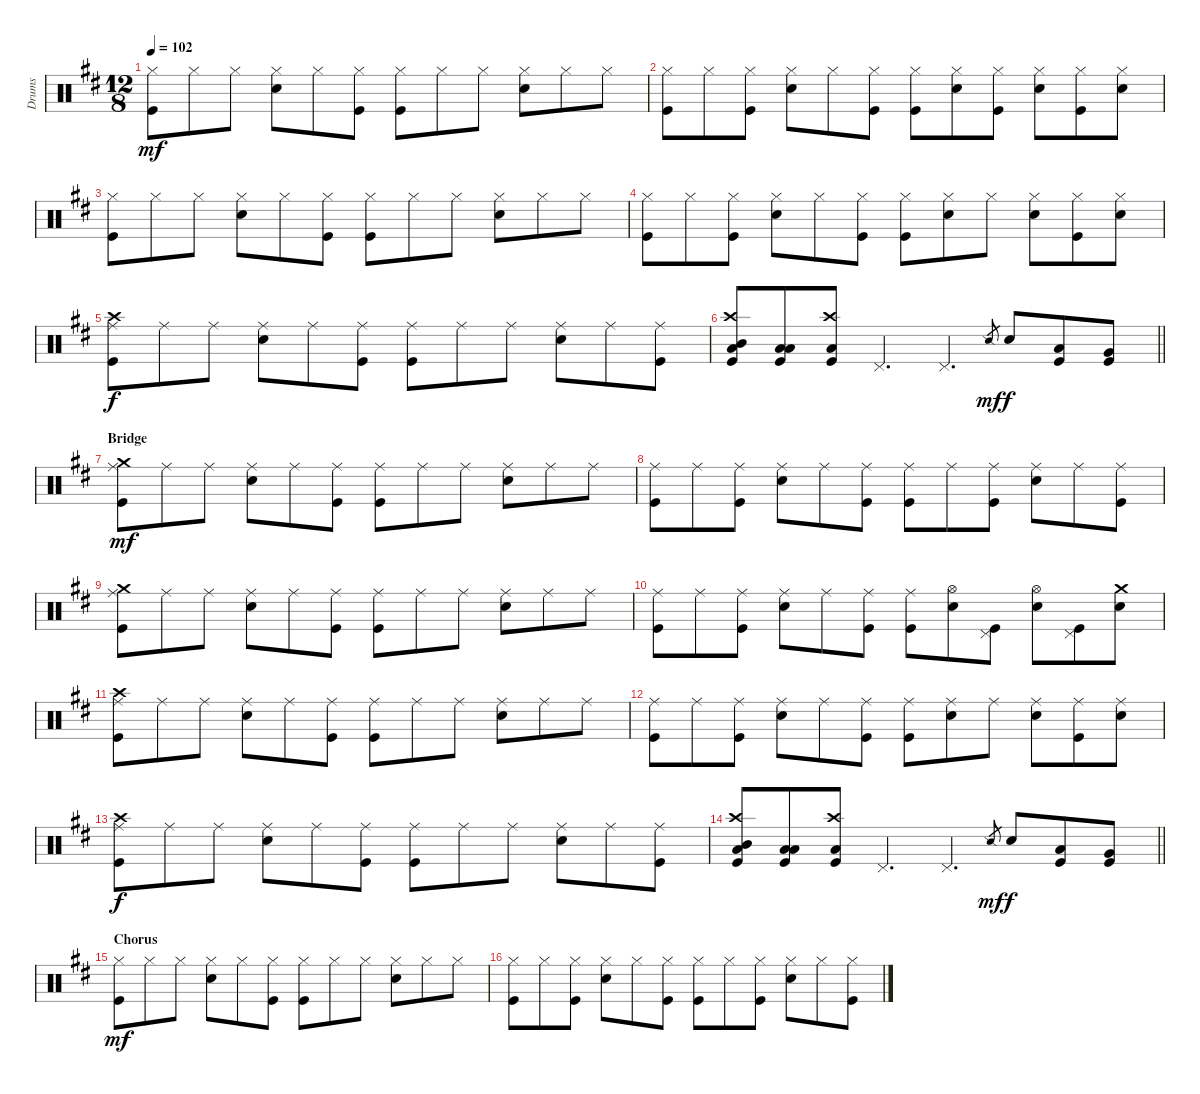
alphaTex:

\track ("Drums" "Drums") {instrument percussion}
\staff {score}
\articulation defaults
\ts (12 8)
\tempo 102
\clef neutral
\ks d
("Hi-Hat (closed)" "Kick (hit)").8{dy mf} "Hi-Hat (closed)".8 "Hi-Hat (closed)".8 ("Hi-Hat (closed)" "Snare (hit) 2").8 "Hi-Hat (closed)".8 ("Hi-Hat (closed)" "Kick (hit)").8 ("Hi-Hat (closed)" "Kick (hit)").8 "Hi-Hat (closed)".8 "Hi-Hat (closed)".8 ("Hi-Hat (closed)" "Snare (hit) 2").8 "Hi-Hat (closed)".8 "Hi-Hat (closed)".8 |
("Hi-Hat (closed)" "Kick (hit)").8 "Hi-Hat (closed)".8 ("Hi-Hat (closed)" "Kick (hit)").8 ("Hi-Hat (closed)" "Snare (hit) 2").8 "Hi-Hat (closed)".8 ("Hi-Hat (closed)" "Kick (hit)").8 ("Hi-Hat (closed)" "Kick (hit)").8 ("Hi-Hat (closed)" "Snare (hit) 2").8 ("Hi-Hat (closed)" "Kick (hit)").8 ("Hi-Hat (closed)" "Snare (hit) 2").8 ("Hi-Hat (closed)" "Kick (hit)").8 ("Hi-Hat (closed)" "Snare (hit) 2").8 |
("Hi-Hat (closed)" "Kick (hit)").8 "Hi-Hat (closed)".8 "Hi-Hat (closed)".8 ("Hi-Hat (closed)" "Snare (hit) 2").8 "Hi-Hat (closed)".8 ("Hi-Hat (closed)" "Kick (hit)").8 ("Hi-Hat (closed)" "Kick (hit)").8 "Hi-Hat (closed)".8 "Hi-Hat (closed)".8 ("Hi-Hat (closed)" "Snare (hit) 2").8 "Hi-Hat (closed)".8 "Hi-Hat (closed)".8 |
("Hi-Hat (closed)" "Kick (hit)").8 "Hi-Hat (closed)".8 ("Hi-Hat (closed)" "Kick (hit)").8 ("Hi-Hat (closed)" "Snare (hit) 2").8 "Hi-Hat (closed)".8 ("Hi-Hat (closed)" "Kick (hit)").8 ("Hi-Hat (closed)" "Kick (hit)").8 ("Hi-Hat (closed)" "Snare (hit) 2").8 "Hi-Hat (closed)".8 ("Hi-Hat (closed)" "Snare (hit) 2").8 ("Hi-Hat (closed)" "Kick (hit)").8 ("Hi-Hat (closed)" "Snare (hit) 2").8 |
("Ride (middle)" "Crash high (hit)" "Kick (hit)").8{dy f} "Ride (middle)".8 "Ride (middle)".8 ("Ride (middle)" "Snare (hit) 2").8 "Ride (middle)".8 ("Ride (middle)" "Kick (hit)").8 ("Ride (middle)" "Kick (hit)").8 "Ride (middle)".8 "Ride (middle)".8 ("Ride (middle)" "Snare (hit) 2").8 "Ride (middle)".8 ("Ride (middle)" "Kick (hit)").8 |
\barLineRight lightlight
("Crash high (hit)" "Mid Tom (hit)" "Low Floor Tom (hit)" "Kick (hit)").8 ("Low Tom (hit)" "Low Floor Tom (hit)" "Kick (hit)").8 ("Crash high (hit)" "Low Floor Tom (hit)" "Kick (hit)").8 "Pedal Hi-Hat (hit)".4{d} "Pedal Hi-Hat (hit)".4{d} "Snare (side stick) 2".8{gr dy mf} "Snare (hit) 2".8{dy f} ("Low Tom (hit)" "Kick (hit)").8 ("Very Low Tom (hit)" "Kick (hit)").8 |
\section ("" "Bridge")
("Ride (middle)" "Crash medium (hit)" "Kick (hit)").8{dy mf} "Ride (middle)".8 "Ride (middle)".8 ("Ride (middle)" "Snare (hit) 2").8 "Ride (middle)".8 ("Ride (middle)" "Kick (hit)").8 ("Ride (middle)" "Kick (hit)").8 "Ride (middle)".8 "Ride (middle)".8 ("Ride (middle)" "Snare (hit) 2").8 "Ride (middle)".8 "Ride (middle)".8 |
("Ride (middle)" "Kick (hit)").8 "Ride (middle)".8 ("Ride (middle)" "Kick (hit)").8 ("Ride (middle)" "Snare (hit) 2").8 "Ride (middle)".8 ("Ride (middle)" "Kick (hit)").8 ("Ride (middle)" "Kick (hit)").8 "Ride (middle)".8 ("Ride (middle)" "Kick (hit)").8 ("Ride (middle)" "Snare (hit) 2").8 "Ride (middle)".8 ("Ride (middle)" "Kick (hit)").8 |
("Ride (middle)" "Crash medium (hit)" "Kick (hit)").8 "Ride (middle)".8 "Ride (middle)".8 ("Ride (middle)" "Snare (hit) 2").8 "Ride (middle)".8 ("Ride (middle)" "Kick (hit)").8 ("Ride (middle)" "Kick (hit)").8 "Ride (middle)".8 "Ride (middle)".8 ("Ride (middle)" "Snare (hit) 2").8 "Ride (middle)".8 "Ride (middle)".8 |
("Ride (middle)" "Kick (hit)").8 "Ride (middle)".8 ("Ride (middle)" "Kick (hit)").8 ("Ride (middle)" "Snare (hit) 2").8 "Ride (middle)".8 ("Ride (middle)" "Kick (hit)").8 ("Ride (middle)" "Kick (hit)").8 ("Hi-Hat (open)" "Snare (hit) 2").8 ("Pedal Hi-Hat (hit)" "Kick (hit)").8 ("Hi-Hat (open)" "Snare (hit) 2").8 ("Pedal Hi-Hat (hit)" "Kick (hit)").8 ("Crash medium (hit)" "Snare (hit) 2").8 |
("Ride (middle)" "Crash high (hit)" "Kick (hit)").8 "Ride (middle)".8 "Ride (middle)".8 ("Ride (middle)" "Snare (hit) 2").8 "Ride (middle)".8 ("Ride (middle)" "Kick (hit)").8 ("Ride (middle)" "Kick (hit)").8 "Ride (middle)".8 "Ride (middle)".8 ("Ride (middle)" "Snare (hit) 2").8 "Ride (middle)".8 "Ride (middle)".8 |
("Ride (middle)" "Kick (hit)").8 "Ride (middle)".8 ("Ride (middle)" "Kick (hit)").8 ("Ride (middle)" "Snare (hit) 2").8 "Ride (middle)".8 ("Ride (middle)" "Kick (hit)").8 ("Ride (middle)" "Kick (hit)").8 ("Ride (middle)" "Snare (hit) 2").8 "Ride (middle)".8 ("Ride (middle)" "Snare (hit) 2").8 ("Ride (middle)" "Kick (hit)").8 ("Ride (middle)" "Snare (hit) 2").8 |
("Ride (middle)" "Crash high (hit)" "Kick (hit)").8{dy f} "Ride (middle)".8 "Ride (middle)".8 ("Ride (middle)" "Snare (hit) 2").8 "Ride (middle)".8 ("Ride (middle)" "Kick (hit)").8 ("Ride (middle)" "Kick (hit)").8 "Ride (middle)".8 "Ride (middle)".8 ("Ride (middle)" "Snare (hit) 2").8 "Ride (middle)".8 ("Ride (middle)" "Kick (hit)").8 |
\barLineRight lightlight
("Crash high (hit)" "Mid Tom (hit)" "Low Floor Tom (hit)" "Kick (hit)").8 ("Low Tom (hit)" "Low Floor Tom (hit)" "Kick (hit)").8 ("Crash high (hit)" "Low Floor Tom (hit)" "Kick (hit)").8 "Pedal Hi-Hat (hit)".4{d} "Pedal Hi-Hat (hit)".4{d} "Snare (side stick) 2".8{gr dy mf} "Snare (hit) 2".8{dy f} ("Low Tom (hit)" "Kick (hit)").8 ("Very Low Tom (hit)" "Kick (hit)").8 |
\section ("" "Chorus")
("Hi-Hat (closed)" "Kick (hit)").8{dy mf} "Hi-Hat (closed)".8 "Hi-Hat (closed)".8 ("Hi-Hat (closed)" "Snare (hit) 2").8 "Hi-Hat (closed)".8 ("Hi-Hat (closed)" "Kick (hit)").8 ("Hi-Hat (closed)" "Kick (hit)").8 "Hi-Hat (closed)".8 "Hi-Hat (closed)".8 ("Hi-Hat (closed)" "Snare (hit) 2").8 "Hi-Hat (closed)".8 "Hi-Hat (closed)".8 |
("Hi-Hat (closed)" "Kick (hit)").8 "Hi-Hat (closed)".8 ("Hi-Hat (closed)" "Kick (hit)").8 ("Hi-Hat (closed)" "Snare (hit) 2").8 "Hi-Hat (closed)".8 ("Hi-Hat (closed)" "Kick (hit)").8 ("Hi-Hat (closed)" "Kick (hit)").8 "Hi-Hat (closed)".8 ("Hi-Hat (closed)" "Kick (hit)").8 ("Hi-Hat (closed)" "Snare (hit) 2").8 "Hi-Hat (closed)".8 ("Hi-Hat (closed)" "Kick (hit)").8
